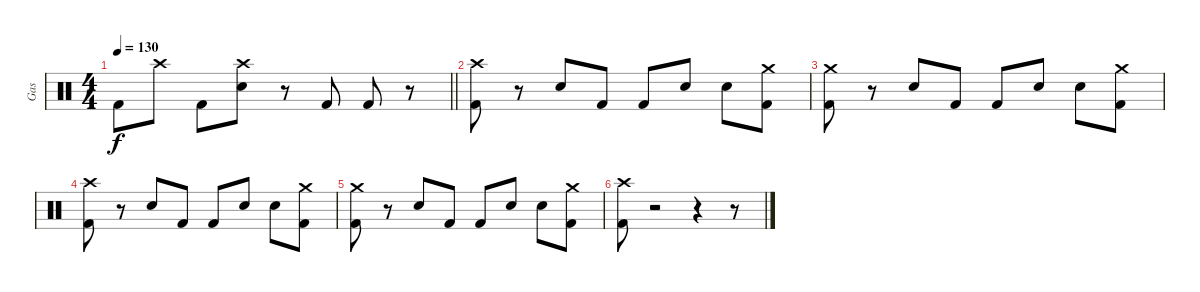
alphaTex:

\track ("Gas" "Gas") {instrument percussion}
\staff {score}
\articulation defaults
\ts (4 4)
\tempo 130
\clef neutral
\barLineRight lightlight
\ks c "Kick (hit) 2".8{dy f} "Crash high (hit)".8 "Kick (hit) 2".8
("Electric Snare (hit)" "Crash high (hit)").8 r.8 "Kick (hit) 2".8 "Kick (hit) 2".8 r.8 |
("Crash high (hit)" "Kick (hit) 2").8 r.8 "Electric Snare (hit)".8 "Kick (hit) 2".8 "Kick (hit) 2".8 "Electric Snare (hit)".8 "Electric Snare (hit)".8 ("Crash medium (hit)" "Kick (hit) 2").8 |
("Crash medium (hit)" "Kick (hit) 2").8 r.8 "Electric Snare (hit)".8 "Kick (hit) 2".8 "Kick (hit) 2".8 "Electric Snare (hit)".8 "Electric Snare (hit)".8 ("Crash medium (hit)" "Kick (hit) 2").8 |
("Crash high (hit)" "Kick (hit) 2").8 r.8 "Electric Snare (hit)".8 "Kick (hit) 2".8 "Kick (hit) 2".8 "Electric Snare (hit)".8 "Electric Snare (hit)".8 ("Crash medium (hit)" "Kick (hit) 2").8 |
("Crash medium (hit)" "Kick (hit) 2").8 r.8 "Electric Snare (hit)".8 "Kick (hit) 2".8 "Kick (hit) 2".8 "Electric Snare (hit)".8 "Electric Snare (hit)".8 ("Crash medium (hit)" "Kick (hit) 2").8 |
("Crash high (hit)" "Kick (hit) 2").8 r.2 r.4 r.8
